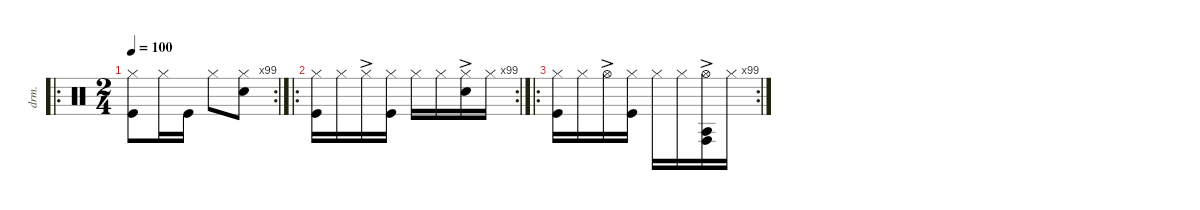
\defaultSystemsLayout 4
\hideDynamics
\bracketExtendMode nobrackets
\otherSystemsTrackNameOrientation horizontal
\track ("Drumkit" "drm.") {instrument percussion}
\staff {score}
\articulation defaults
\ro
\rc 99
\ts (2 4)
\beaming (8 2 2)
\tempo 100
\clef neutral
\ks c
("Hi-Hat (closed)" "Kick (hit)").8{dy mf beam Down} "Hi-Hat (closed)".16{beam Down} "Kick (hit)".16{beam Down} "Hi-Hat (closed)".8{beam Down} ("Hi-Hat (closed)" "Snare (hit) 2").8{beam Down} |
\ro
\rc 99
("Hi-Hat (closed)" "Kick (hit)").16{beam Down} "Hi-Hat (closed)".16{beam Down} "Hi-Hat (closed)"{ac}.16{beam Down} ("Hi-Hat (closed)" "Kick (hit)").16{beam Down} "Hi-Hat (closed)".16{beam Down} "Hi-Hat (closed)".16{beam Down} ("Hi-Hat (closed)"{ac} "Snare (hit) 2").16{beam Down} "Hi-Hat (closed)".16{beam Down} |
\ro
\rc 99
("Hi-Hat (closed)" "Kick (hit)").16{beam Down} "Hi-Hat (closed)".16{beam Down} "Hi-Hat (open)"{ac}.16{beam Down} ("Hi-Hat (closed)" "Kick (hit)").16{beam Down} "Hi-Hat (closed)".16{beam Down} "Hi-Hat (closed)".16{beam Down} ("Hi-Hat (open)"{ac} "Conga high (hit)" "Agogo tow (hit)").16{beam Down} "Hi-Hat (closed)".16{beam Down}
